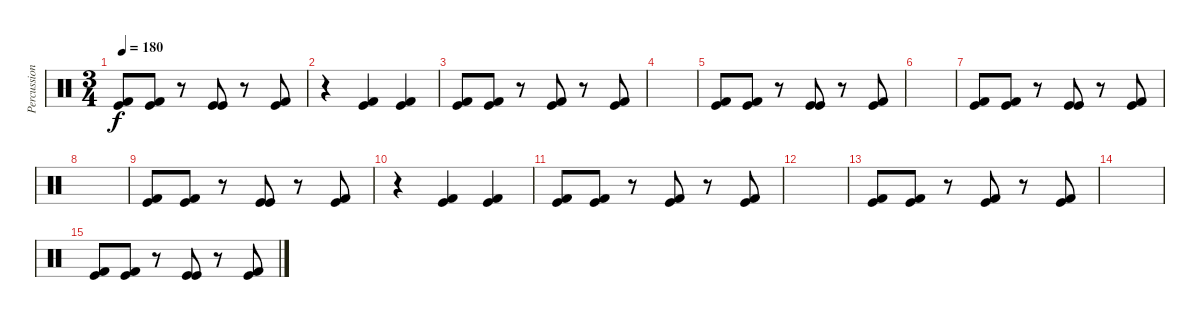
\track ("Percussion" "Percussion") {instrument percussion}
\staff {score}
\articulation defaults
\ts (3 4)
\tempo 180
\clef neutral
\ks c
("Kick (hit) 2" "Kick (hit)").8{dy f} ("Kick (hit) 2" "Kick (hit)").8 r.8 ("Kick (hit)" "Kick (hit)").8 r.8 ("Kick (hit) 2" "Kick (hit)").8 |
r.4 ("Kick (hit) 2" "Kick (hit)").4 ("Kick (hit) 2" "Kick (hit)").4 |
("Kick (hit) 2" "Kick (hit)").8 ("Kick (hit) 2" "Kick (hit)").8 r.8 ("Kick (hit) 2" "Kick (hit)").8 r.8 ("Kick (hit) 2" "Kick (hit)").8 |
|
("Kick (hit) 2" "Kick (hit)").8 ("Kick (hit) 2" "Kick (hit)").8 r.8 ("Kick (hit)" "Kick (hit)").8 r.8 ("Kick (hit) 2" "Kick (hit)").8 |
|
("Kick (hit) 2" "Kick (hit)").8 ("Kick (hit) 2" "Kick (hit)").8 r.8 ("Kick (hit)" "Kick (hit)").8 r.8 ("Kick (hit) 2" "Kick (hit)").8 |
|
("Kick (hit) 2" "Kick (hit)").8 ("Kick (hit) 2" "Kick (hit)").8 r.8 ("Kick (hit)" "Kick (hit)").8 r.8 ("Kick (hit) 2" "Kick (hit)").8 |
r.4 ("Kick (hit) 2" "Kick (hit)").4 ("Kick (hit) 2" "Kick (hit)").4 |
("Kick (hit) 2" "Kick (hit)").8 ("Kick (hit) 2" "Kick (hit)").8 r.8 ("Kick (hit) 2" "Kick (hit)").8 r.8 ("Kick (hit)" "Kick (hit) 2").8 |
|
("Kick (hit) 2" "Kick (hit)").8 ("Kick (hit) 2" "Kick (hit)").8 r.8 ("Kick (hit) 2" "Kick (hit)").8 r.8 ("Kick (hit) 2" "Kick (hit)").8 |
|
("Kick (hit) 2" "Kick (hit)").8 ("Kick (hit) 2" "Kick (hit)").8 r.8 ("Kick (hit)" "Kick (hit)").8 r.8 ("Kick (hit) 2" "Kick (hit)").8
